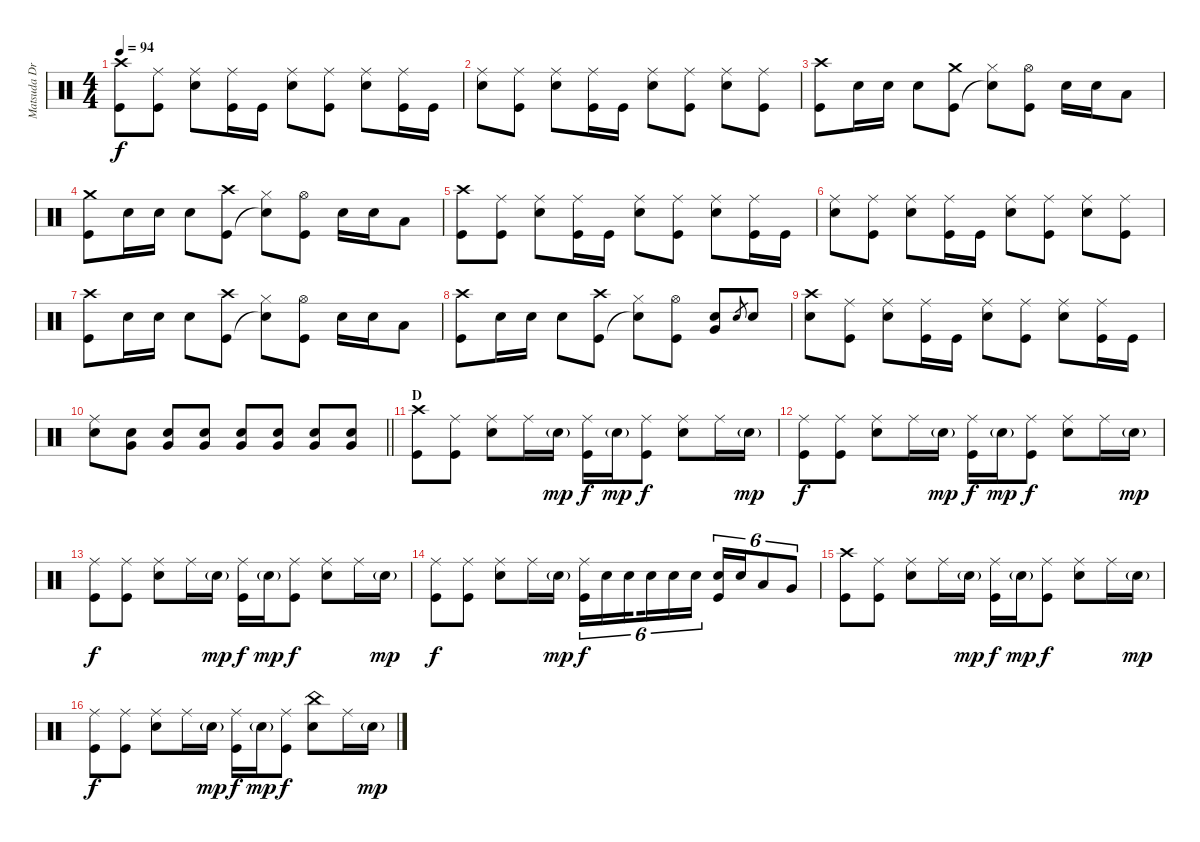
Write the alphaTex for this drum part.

\track ("Matsuda Drums" "Matsuda Dr") {instrument percussion}
\staff {score}
\articulation defaults
\ts (4 4)
\tempo 94
\clef neutral
\ks c
("Crash high (hit)" "Kick (hit)").8{dy f} ("Ride (middle)" "Kick (hit)").8 ("Ride (middle)" "Snare (hit) 2").8 ("Ride (middle)" "Kick (hit)").16 "Kick (hit)".16 ("Ride (middle)" "Snare (hit) 2").8 ("Ride (middle)" "Kick (hit)").8 ("Ride (middle)" "Snare (hit) 2").8 ("Ride (middle)" "Kick (hit)").16 "Kick (hit)".16 |
("Ride (middle)" "Snare (hit) 2").8 ("Ride (middle)" "Kick (hit)").8 ("Ride (middle)" "Snare (hit) 2").8 ("Ride (middle)" "Kick (hit)").16 "Kick (hit)".16 ("Ride (middle)" "Snare (hit) 2").8 ("Ride (middle)" "Kick (hit)").8 ("Ride (middle)" "Snare (hit) 2").8 ("Ride (middle)" "Kick (hit)").8 |
("Crash high (hit)" "Kick (hit)").8 "Snare (hit) 2".16 "Snare (hit) 2".16 "Snare (hit) 2".8 ("Crash medium (hit)" "Kick (hit)").8 ("Hi-Hat (closed)" "Snare (hit)"{t}).8 ("Hi-Hat (open)" "Kick (hit)").8 "Snare (hit) 2".16 "Snare (hit) 2".16 "Low Tom (hit)".8 |
("Crash medium (hit)" "Kick (hit)").8 "Snare (hit) 2".16 "Snare (hit) 2".16 "Snare (hit) 2".8 ("Crash high (hit)" "Kick (hit)").8 ("Hi-Hat (closed)" "Snare (hit)"{t}).8 ("Hi-Hat (open)" "Kick (hit)").8 "Snare (hit) 2".16 "Snare (hit) 2".16 "Low Tom (hit)".8 |
("Crash high (hit)" "Kick (hit)").8 ("Ride (middle)" "Kick (hit)").8 ("Ride (middle)" "Snare (hit) 2").8 ("Ride (middle)" "Kick (hit)").16 "Kick (hit)".16 ("Ride (middle)" "Snare (hit) 2").8 ("Ride (middle)" "Kick (hit)").8 ("Ride (middle)" "Snare (hit) 2").8 ("Ride (middle)" "Kick (hit)").16 "Kick (hit)".16 |
("Ride (middle)" "Snare (hit) 2").8 ("Ride (middle)" "Kick (hit)").8 ("Ride (middle)" "Snare (hit) 2").8 ("Ride (middle)" "Kick (hit)").16 "Kick (hit)".16 ("Ride (middle)" "Snare (hit) 2").8 ("Ride (middle)" "Kick (hit)").8 ("Ride (middle)" "Snare (hit) 2").8 ("Ride (middle)" "Kick (hit)").8 |
("Crash high (hit)" "Kick (hit)").8 "Snare (hit) 2".16 "Snare (hit) 2".16 "Snare (hit) 2".8 ("Crash high (hit)" "Kick (hit)").8 ("Hi-Hat (closed)" "Snare (hit)"{t}).8 ("Hi-Hat (open)" "Kick (hit)").8 "Snare (hit) 2".16 "Snare (hit) 2".16 "Low Tom (hit)".8 |
("Crash high (hit)" "Kick (hit)").8 "Snare (hit) 2".16 "Snare (hit) 2".16 "Snare (hit) 2".8 ("Crash high (hit)" "Kick (hit)").8 ("Hi-Hat (closed)" "Snare (hit)"{t}).8 ("Hi-Hat (open)" "Kick (hit)").8 ("Snare (hit) 2" "Very Low Tom (hit)").8 "Snare (hit) 2".8{gr} "Snare (hit) 2".8 |
("Crash high (hit)" "Snare (hit) 2").8 ("Ride (middle)" "Kick (hit)").8 ("Ride (middle)" "Snare (hit) 2").8 ("Ride (middle)" "Kick (hit)").16 "Kick (hit)".16 ("Ride (middle)" "Snare (hit) 2").8 ("Ride (middle)" "Kick (hit)").8 ("Ride (middle)" "Snare (hit) 2").8 ("Ride (middle)" "Kick (hit)").16 "Kick (hit)".16 |
\barLineRight lightlight
("Ride (middle)" "Snare (hit) 2").8 ("Snare (hit) 2" "Very Low Tom (hit)").8 ("Snare (hit) 2" "Very Low Tom (hit)").8 ("Snare (hit) 2" "Very Low Tom (hit)").8 ("Snare (hit) 2" "Very Low Tom (hit)").8 ("Snare (hit) 2" "Very Low Tom (hit)").8 ("Snare (hit) 2" "Very Low Tom (hit)").8 ("Snare (hit) 2" "Very Low Tom (hit)").8 |
\section ("" "D")
("Crash high (hit)" "Kick (hit)").8 ("Ride (middle)" "Kick (hit)").8 ("Ride (middle)" "Snare (hit) 2").8 "Ride (middle)".16 "Snare (hit) 2"{g}.16{dy mp} ("Ride (middle)" "Kick (hit)").16{dy f} "Snare (hit) 2"{g}.16{dy mp} ("Ride (middle)" "Kick (hit)").8{dy f} ("Ride (middle)" "Snare (hit) 2").8 "Ride (middle)".16 "Snare (hit) 2"{g}.16{dy mp} |
("Ride (middle)" "Kick (hit)").8{dy f} ("Ride (middle)" "Kick (hit)").8 ("Ride (middle)" "Snare (hit) 2").8 "Ride (middle)".16 "Snare (hit) 2"{g}.16{dy mp} ("Ride (middle)" "Kick (hit)").16{dy f} "Snare (hit) 2"{g}.16{dy mp} ("Ride (middle)" "Kick (hit)").8{dy f} ("Ride (middle)" "Snare (hit) 2").8 "Ride (middle)".16 "Snare (hit) 2"{g}.16{dy mp} |
("Ride (middle)" "Kick (hit)").8{dy f} ("Ride (middle)" "Kick (hit)").8 ("Ride (middle)" "Snare (hit) 2").8 "Ride (middle)".16 "Snare (hit) 2"{g}.16{dy mp} ("Ride (middle)" "Kick (hit)").16{dy f} "Snare (hit) 2"{g}.16{dy mp} ("Ride (middle)" "Kick (hit)").8{dy f} ("Ride (middle)" "Snare (hit) 2").8 "Ride (middle)".16 "Snare (hit) 2"{g}.16{dy mp} |
("Ride (middle)" "Kick (hit)").8{dy f} ("Ride (middle)" "Kick (hit)").8 ("Ride (middle)" "Snare (hit) 2").8 "Ride (middle)".16 "Snare (hit) 2"{g}.16{dy mp} ("Ride (middle)" "Kick (hit)").16{tu (6 4) dy f} "Snare (hit) 2".16{tu (6 4)} "Snare (hit) 2".16{tu (6 4) beam splitsecondary} "Snare (hit) 2".16{tu (6 4)} "Snare (hit) 2".16{tu (6 4)} "Snare (hit) 2".16{tu (6 4)} ("Snare (hit) 2" "Kick (hit)").16{tu (6 4)} "Snare (hit) 2".16{tu (6 4)} "Low Tom (hit)".8{tu (6 4)} "Very Low Tom (hit)".8{tu (6 4)} |
("Crash high (hit)" "Kick (hit)").8 ("Ride (middle)" "Kick (hit)").8 ("Ride (middle)" "Snare (hit) 2").8 "Ride (middle)".16 "Snare (hit) 2"{g}.16{dy mp} ("Ride (middle)" "Kick (hit)").16{dy f} "Snare (hit) 2"{g}.16{dy mp} ("Ride (middle)" "Kick (hit)").8{dy f} ("Ride (middle)" "Snare (hit) 2").8 "Ride (middle)".16 "Snare (hit) 2"{g}.16{dy mp} |
("Ride (middle)" "Kick (hit)").8{dy f} ("Ride (middle)" "Kick (hit)").8 ("Ride (middle)" "Snare (hit) 2").8 "Ride (middle)".16 "Snare (hit) 2"{g}.16{dy mp} ("Ride (middle)" "Kick (hit)").16{dy f} "Snare (hit) 2"{g}.16{dy mp} ("Ride (middle)" "Kick (hit)").8{dy f} ("China (hit)" "Snare (hit) 2").8 "Ride (middle)".16 "Snare (hit) 2"{g}.16{dy mp}
